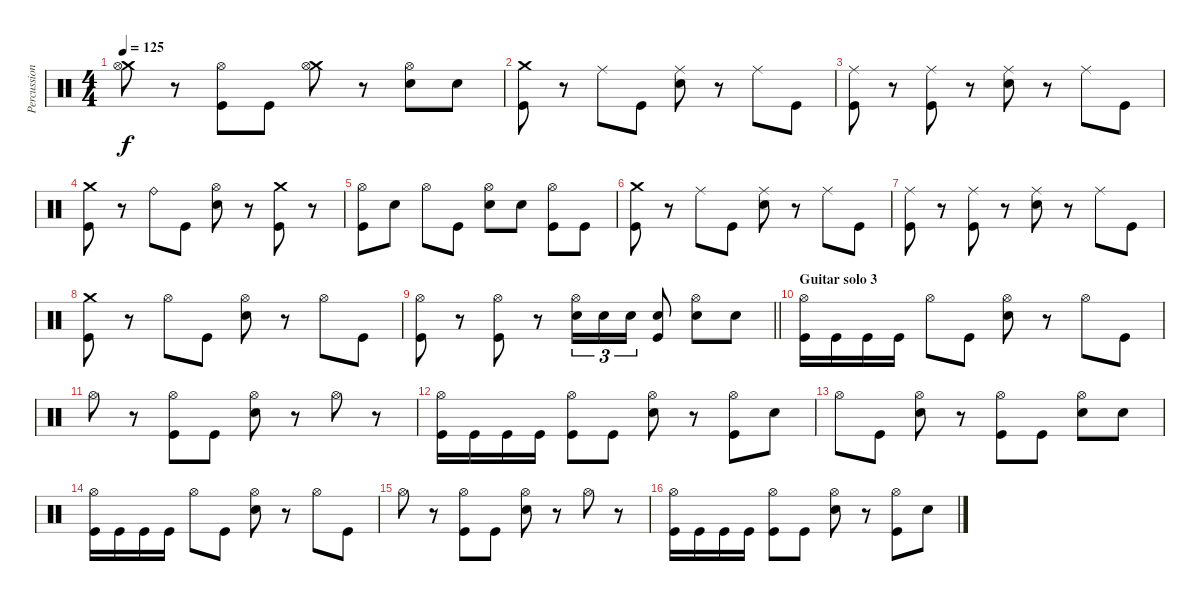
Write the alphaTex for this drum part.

\track ("Percussion" "Percussion") {instrument percussion}
\staff {score}
\articulation defaults
\ts (4 4)
\tempo 125
\clef neutral
\ks c
("Crash medium (hit)" "Hi-Hat (open)").8{dy f} r.8 ("Hi-Hat (open)" "Kick (hit)").8 "Kick (hit)".8 ("Crash medium (hit)" "Hi-Hat (open)").8 r.8 ("Hi-Hat (open)" "Snare (hit) 2").8 "Snare (hit) 2".8 |
("Crash medium (hit)" "Kick (hit)").8 r.8 "Ride (middle)".8 "Kick (hit)".8 ("Ride (middle)" "Snare (hit) 2").8 r.8 "Ride (middle)".8 "Kick (hit)".8 |
("Ride (middle)" "Kick (hit)").8 r.8 ("Ride (middle)" "Kick (hit)").8 r.8 ("Ride (middle)" "Snare (hit) 2").8 r.8 "Ride (middle)".8 "Kick (hit)".8 |
("Crash medium (hit)" "Kick (hit)").8 r.8 "Ride (bell)".8 "Kick (hit)".8 ("Hi-Hat (open)" "Snare (hit) 2").8 r.8 ("Crash medium (hit)" "Kick (hit)").8 r.8 |
("Hi-Hat (open)" "Kick (hit)").8 "Snare (hit) 2".8 "Hi-Hat (open)".8 "Kick (hit)".8 ("Hi-Hat (open)" "Snare (hit) 2").8 "Snare (hit) 2".8 ("Hi-Hat (open)" "Kick (hit)").8 "Kick (hit)".8 |
("Crash medium (hit)" "Kick (hit)").8 r.8 "Ride (middle)".8 "Kick (hit)".8 ("Ride (middle)" "Snare (hit) 2").8 r.8 "Ride (middle)".8 "Kick (hit)".8 |
("Ride (middle)" "Kick (hit)").8 r.8 ("Ride (middle)" "Kick (hit)").8 r.8 ("Ride (middle)" "Snare (hit) 2").8 r.8 "Ride (middle)".8 "Kick (hit)".8 |
("Crash medium (hit)" "Kick (hit)").8 r.8 "Hi-Hat (open)".8 "Kick (hit)".8 ("Hi-Hat (open)" "Snare (hit) 2").8 r.8 "Hi-Hat (open)".8 "Kick (hit)".8 |
\barLineRight lightlight
("Hi-Hat (open)" "Kick (hit)").8 r.8 ("Hi-Hat (open)" "Kick (hit)").8 r.8 ("Hi-Hat (open)" "Snare (hit) 2").16{tu (3 2)} "Snare (hit) 2".16{tu (3 2)} "Snare (hit) 2".16{tu (3 2)} ("Snare (hit) 2" "Kick (hit)").8 ("Hi-Hat (open)" "Snare (hit) 2").8 "Snare (hit) 2".8 |
\section ("" "Guitar solo 3")
("Hi-Hat (open)" "Kick (hit)").16 "Kick (hit)".16 "Kick (hit)".16 "Kick (hit)".16 "Hi-Hat (open)".8 "Kick (hit)".8 ("Hi-Hat (open)" "Snare (hit) 2").8 r.8 "Hi-Hat (open)".8 "Kick (hit)".8 |
"Hi-Hat (open)".8 r.8 ("Hi-Hat (open)" "Kick (hit)").8 "Kick (hit)".8 ("Hi-Hat (open)" "Snare (hit) 2").8 r.8 "Hi-Hat (open)".8 r.8 |
("Hi-Hat (open)" "Kick (hit)").16 "Kick (hit)".16 "Kick (hit)".16 "Kick (hit)".16 ("Hi-Hat (open)" "Kick (hit)").8 "Kick (hit)".8 ("Hi-Hat (open)" "Snare (hit) 2").8 r.8 ("Hi-Hat (open)" "Kick (hit)").8 "Snare (hit) 2".8 |
"Hi-Hat (open)".8 "Kick (hit)".8 ("Hi-Hat (open)" "Snare (hit) 2").8 r.8 ("Hi-Hat (open)" "Kick (hit)").8 "Kick (hit)".8 ("Hi-Hat (open)" "Snare (hit) 2").8 "Snare (hit) 2".8 |
("Hi-Hat (open)" "Kick (hit)").16 "Kick (hit)".16 "Kick (hit)".16 "Kick (hit)".16 "Hi-Hat (open)".8 "Kick (hit)".8 ("Hi-Hat (open)" "Snare (hit) 2").8 r.8 "Hi-Hat (open)".8 "Kick (hit)".8 |
"Hi-Hat (open)".8 r.8 ("Hi-Hat (open)" "Kick (hit)").8 "Kick (hit)".8 ("Hi-Hat (open)" "Snare (hit) 2").8 r.8 "Hi-Hat (open)".8 r.8 |
("Hi-Hat (open)" "Kick (hit)").16 "Kick (hit)".16 "Kick (hit)".16 "Kick (hit)".16 ("Hi-Hat (open)" "Kick (hit)").8 "Kick (hit)".8 ("Hi-Hat (open)" "Snare (hit) 2").8 r.8 ("Hi-Hat (open)" "Kick (hit)").8 "Snare (hit) 2".8
